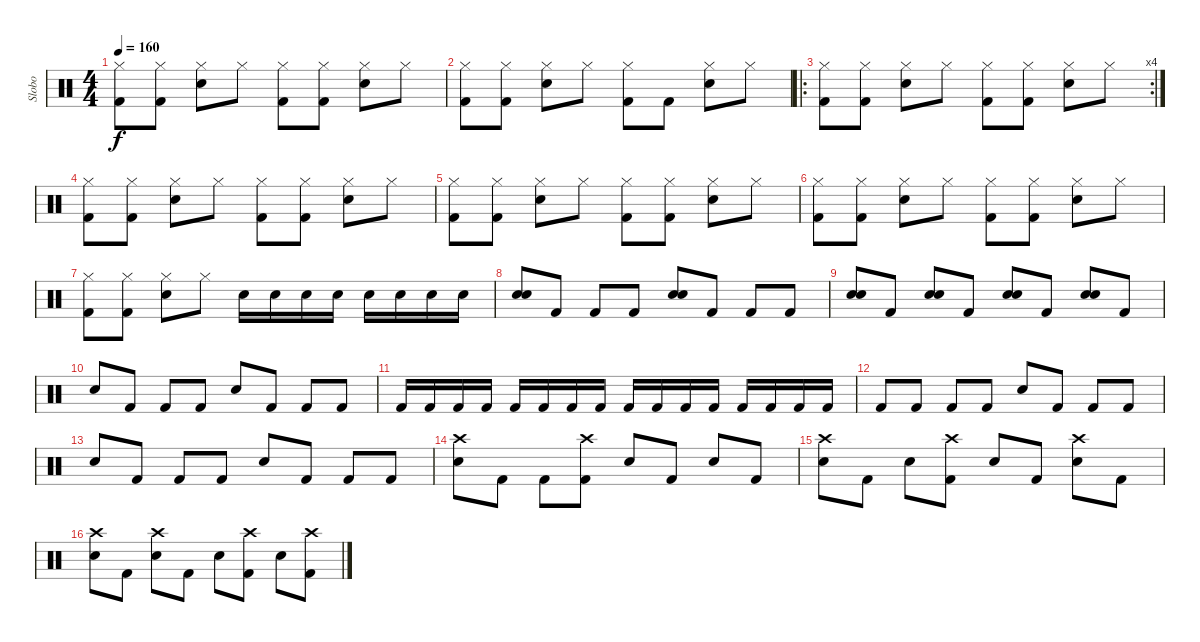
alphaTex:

\track ("Slobo" "Slobo") {instrument percussion}
\staff {score}
\articulation defaults
\ts (4 4)
\tempo 160
\clef neutral
\ks c
("Kick (hit) 2" "Hi-Hat (closed)").8{dy f} ("Kick (hit) 2" "Hi-Hat (closed)").8 ("Snare (hit) 2" "Hi-Hat (closed)").8 "Hi-Hat (closed)".8 ("Kick (hit) 2" "Hi-Hat (closed)").8 ("Kick (hit) 2" "Hi-Hat (closed)").8 ("Snare (hit) 2" "Hi-Hat (closed)").8 "Hi-Hat (closed)".8 |
("Kick (hit) 2" "Hi-Hat (closed)").8 ("Kick (hit) 2" "Hi-Hat (closed)").8 ("Snare (hit) 2" "Hi-Hat (closed)").8 "Hi-Hat (closed)".8 ("Kick (hit) 2" "Hi-Hat (closed)").8 "Kick (hit) 2".8 ("Snare (hit) 2" "Hi-Hat (closed)").8 "Hi-Hat (closed)".8 |
\ro
\rc 4
("Kick (hit) 2" "Hi-Hat (closed)").8 ("Kick (hit) 2" "Hi-Hat (closed)").8 ("Snare (hit) 2" "Hi-Hat (closed)").8 "Hi-Hat (closed)".8 ("Kick (hit) 2" "Hi-Hat (closed)").8 ("Kick (hit) 2" "Hi-Hat (closed)").8 ("Snare (hit) 2" "Hi-Hat (closed)").8 "Hi-Hat (closed)".8 |
("Kick (hit) 2" "Hi-Hat (closed)").8 ("Kick (hit) 2" "Hi-Hat (closed)").8 ("Snare (hit) 2" "Hi-Hat (closed)").8 "Hi-Hat (closed)".8 ("Kick (hit) 2" "Hi-Hat (closed)").8 ("Kick (hit) 2" "Hi-Hat (closed)").8 ("Snare (hit) 2" "Hi-Hat (closed)").8 "Hi-Hat (closed)".8 |
("Kick (hit) 2" "Hi-Hat (closed)").8 ("Kick (hit) 2" "Hi-Hat (closed)").8 ("Snare (hit) 2" "Hi-Hat (closed)").8 "Hi-Hat (closed)".8 ("Kick (hit) 2" "Hi-Hat (closed)").8 ("Kick (hit) 2" "Hi-Hat (closed)").8 ("Snare (hit) 2" "Hi-Hat (closed)").8 "Hi-Hat (closed)".8 |
("Kick (hit) 2" "Hi-Hat (closed)").8 ("Kick (hit) 2" "Hi-Hat (closed)").8 ("Snare (hit) 2" "Hi-Hat (closed)").8 "Hi-Hat (closed)".8 ("Kick (hit) 2" "Hi-Hat (closed)").8 ("Kick (hit) 2" "Hi-Hat (closed)").8 ("Snare (hit) 2" "Hi-Hat (closed)").8 "Hi-Hat (closed)".8 |
("Kick (hit) 2" "Hi-Hat (closed)").8 ("Kick (hit) 2" "Hi-Hat (closed)").8 ("Snare (hit) 2" "Hi-Hat (closed)").8 "Hi-Hat (closed)".8 "Snare (hit) 2".16 "Snare (hit) 2".16 "Snare (hit) 2".16 "Snare (hit) 2".16 "Snare (hit) 2".16 "Snare (hit) 2".16 "Snare (hit) 2".16 "Snare (hit) 2".16 |
("Snare (hit) 2" "Snare (hit) 2").8{bd 480} "Kick (hit) 2".8 "Kick (hit) 2".8 "Kick (hit) 2".8 ("Snare (hit) 2" "Snare (hit) 2").8{bd 480} "Kick (hit) 2".8 "Kick (hit) 2".8 "Kick (hit) 2".8 |
("Snare (hit) 2" "Snare (hit) 2").8{bd 480} "Kick (hit) 2".8 ("Snare (hit) 2" "Snare (hit) 2").8{bd 480} "Kick (hit) 2".8 ("Snare (hit) 2" "Snare (hit) 2").8{bd 480} "Kick (hit) 2".8 ("Snare (hit) 2" "Snare (hit) 2").8{bd 480} "Kick (hit) 2".8 |
"Snare (hit) 2".8 "Kick (hit) 2".8 "Kick (hit) 2".8 "Kick (hit) 2".8 "Snare (hit) 2".8 "Kick (hit) 2".8 "Kick (hit) 2".8 "Kick (hit) 2".8 |
"Kick (hit) 2".16 "Kick (hit) 2".16 "Kick (hit) 2".16 "Kick (hit) 2".16 "Kick (hit) 2".16 "Kick (hit) 2".16 "Kick (hit) 2".16 "Kick (hit) 2".16 "Kick (hit) 2".16 "Kick (hit) 2".16 "Kick (hit) 2".16 "Kick (hit) 2".16 "Kick (hit) 2".16 "Kick (hit) 2".16 "Kick (hit) 2".16 "Kick (hit) 2".16 |
"Kick (hit) 2".8 "Kick (hit) 2".8 "Kick (hit) 2".8 "Kick (hit) 2".8 "Snare (hit) 2".8 "Kick (hit) 2".8 "Kick (hit) 2".8 "Kick (hit) 2".8 |
"Snare (hit) 2".8 "Kick (hit) 2".8 "Kick (hit) 2".8 "Kick (hit) 2".8 "Snare (hit) 2".8 "Kick (hit) 2".8 "Kick (hit) 2".8 "Kick (hit) 2".8 |
("Crash high (hit)" "Snare (hit) 2").8 "Kick (hit) 2".8 "Kick (hit) 2".8 ("Crash high (hit)" "Kick (hit) 2").8 "Snare (hit) 2".8 "Kick (hit) 2".8 "Snare (hit) 2".8 "Kick (hit) 2".8 |
("Crash high (hit)" "Snare (hit) 2").8 "Kick (hit) 2".8 "Snare (hit) 2".8 ("Crash high (hit)" "Kick (hit) 2").8 "Snare (hit) 2".8 "Kick (hit) 2".8 ("Crash high (hit)" "Snare (hit) 2").8 "Kick (hit) 2".8 |
("Crash high (hit)" "Snare (hit) 2").8 "Kick (hit) 2".8 ("Crash high (hit)" "Snare (hit) 2").8 "Kick (hit) 2".8 "Snare (hit) 2".8 ("Crash high (hit)" "Kick (hit) 2").8 "Snare (hit) 2".8 ("Crash high (hit)" "Kick (hit) 2").8
